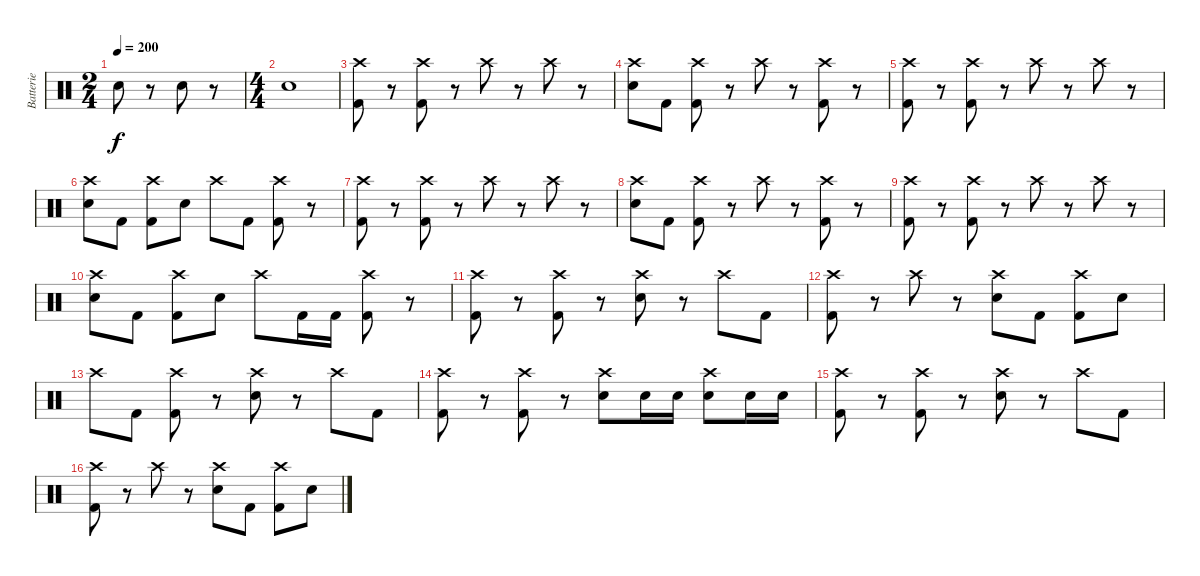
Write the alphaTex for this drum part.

\track ("Batterie" "Batterie") {instrument percussion}
\staff {score}
\articulation defaults
\ts (2 4)
\tempo 200
\clef neutral
\ks c "Electric Snare (hit)".8{dy f}
r.8 "Electric Snare (hit)".8 r.8 |
\ts (4 4)
"Electric Snare (hit)".1 |
("Crash high (hit)" "Kick (hit) 2").8 r.8 ("Crash high (hit)" "Kick (hit) 2").8 r.8 "Crash high (hit)".8 r.8 "Crash high (hit)".8 r.8 |
("Crash high (hit)" "Electric Snare (hit)").8 "Kick (hit) 2".8 ("Crash high (hit)" "Kick (hit) 2").8 r.8 "Crash high (hit)".8 r.8 ("Crash high (hit)" "Kick (hit) 2").8 r.8 |
("Crash high (hit)" "Kick (hit) 2").8 r.8 ("Crash high (hit)" "Kick (hit) 2").8 r.8 "Crash high (hit)".8 r.8 "Crash high (hit)".8 r.8 |
("Crash high (hit)" "Electric Snare (hit)").8 "Kick (hit) 2".8 ("Crash high (hit)" "Kick (hit) 2").8 "Electric Snare (hit)".8 "Crash high (hit)".8 "Kick (hit) 2".8 ("Crash high (hit)" "Kick (hit) 2").8 r.8 |
("Crash high (hit)" "Kick (hit) 2").8 r.8 ("Crash high (hit)" "Kick (hit) 2").8 r.8 "Crash high (hit)".8 r.8 "Crash high (hit)".8 r.8 |
("Crash high (hit)" "Electric Snare (hit)").8 "Kick (hit) 2".8 ("Crash high (hit)" "Kick (hit) 2").8 r.8 "Crash high (hit)".8 r.8 ("Crash high (hit)" "Kick (hit) 2").8 r.8 |
("Crash high (hit)" "Kick (hit) 2").8 r.8 ("Crash high (hit)" "Kick (hit) 2").8 r.8 "Crash high (hit)".8 r.8 "Crash high (hit)".8 r.8 |
("Crash high (hit)" "Electric Snare (hit)").8 "Kick (hit) 2".8 ("Crash high (hit)" "Kick (hit) 2").8 "Electric Snare (hit)".8 "Crash high (hit)".8 "Kick (hit) 2".16 "Kick (hit) 2".16 ("Crash high (hit)" "Kick (hit) 2").8 r.8 |
("Crash high (hit)" "Kick (hit) 2").8 r.8 ("Crash high (hit)" "Kick (hit) 2").8 r.8 ("Crash high (hit)" "Electric Snare (hit)").8 r.8 "Crash high (hit)".8 "Kick (hit) 2".8 |
("Crash high (hit)" "Kick (hit) 2").8 r.8 "Crash high (hit)".8 r.8 ("Crash high (hit)" "Electric Snare (hit)").8 "Kick (hit) 2".8 ("Crash high (hit)" "Kick (hit) 2").8 "Electric Snare (hit)".8 |
"Crash high (hit)".8 "Kick (hit) 2".8 ("Crash high (hit)" "Kick (hit) 2").8 r.8 ("Crash high (hit)" "Electric Snare (hit)").8 r.8 "Crash high (hit)".8 "Kick (hit) 2".8 |
("Crash high (hit)" "Kick (hit) 2").8 r.8 ("Crash high (hit)" "Kick (hit) 2").8 r.8 ("Crash high (hit)" "Electric Snare (hit)").8 "Electric Snare (hit)".16 "Electric Snare (hit)".16 ("Crash high (hit)" "Electric Snare (hit)").8 "Electric Snare (hit)".16 "Electric Snare (hit)".16 |
("Crash high (hit)" "Kick (hit) 2").8 r.8 ("Crash high (hit)" "Kick (hit) 2").8 r.8 ("Crash high (hit)" "Electric Snare (hit)").8 r.8 "Crash high (hit)".8 "Kick (hit) 2".8 |
("Crash high (hit)" "Kick (hit) 2").8 r.8 "Crash high (hit)".8 r.8 ("Crash high (hit)" "Electric Snare (hit)").8 "Kick (hit) 2".8 ("Crash high (hit)" "Kick (hit) 2").8 "Electric Snare (hit)".8
